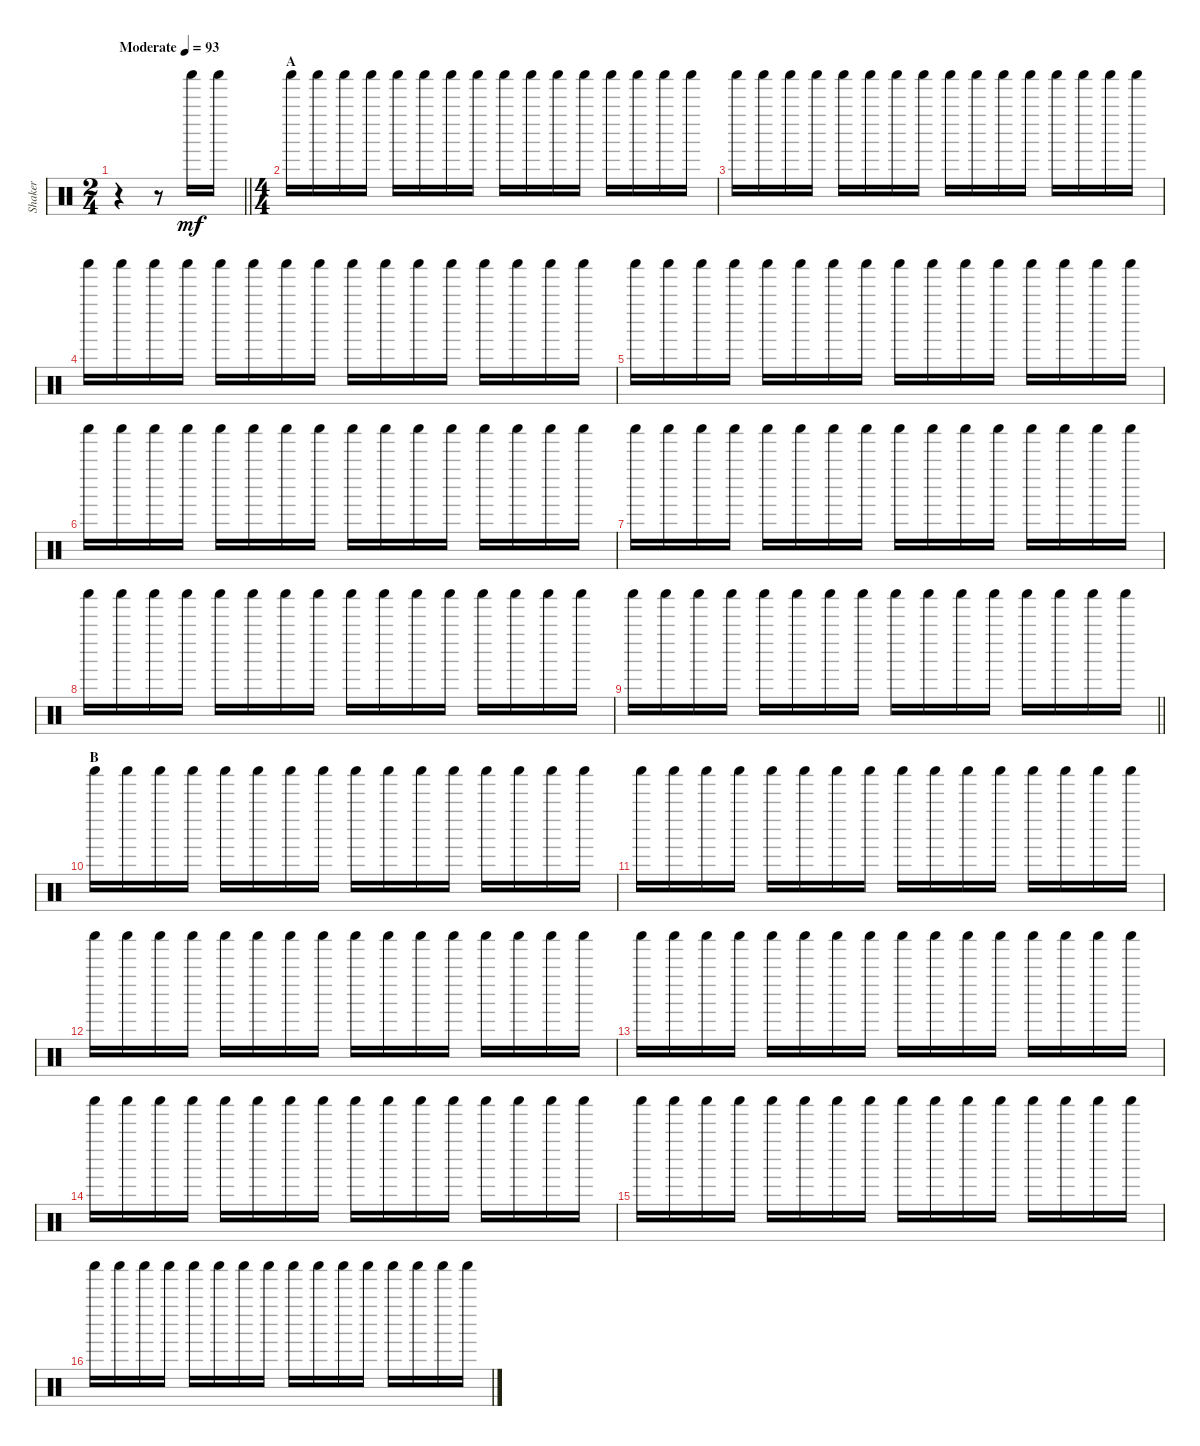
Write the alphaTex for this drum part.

\track ("Shaker" "Shaker") {instrument percussion}
\staff {score}
\articulation defaults
\ts (2 4)
\tempo (93 "Moderate")
\clef neutral
\barLineRight lightlight
\ks c
r.4{dy mf} r.8 "Shaker (hit)".16 "Shaker (hit)".16 |
\ts (4 4)
\section ("" "A")
"Shaker (hit)".16 "Shaker (hit)".16 "Shaker (hit)".16 "Shaker (hit)".16 "Shaker (hit)".16 "Shaker (hit)".16 "Shaker (hit)".16 "Shaker (hit)".16 "Shaker (hit)".16 "Shaker (hit)".16 "Shaker (hit)".16 "Shaker (hit)".16 "Shaker (hit)".16 "Shaker (hit)".16 "Shaker (hit)".16 "Shaker (hit)".16 |
"Shaker (hit)".16 "Shaker (hit)".16 "Shaker (hit)".16 "Shaker (hit)".16 "Shaker (hit)".16 "Shaker (hit)".16 "Shaker (hit)".16 "Shaker (hit)".16 "Shaker (hit)".16 "Shaker (hit)".16 "Shaker (hit)".16 "Shaker (hit)".16 "Shaker (hit)".16 "Shaker (hit)".16 "Shaker (hit)".16 "Shaker (hit)".16 |
"Shaker (hit)".16 "Shaker (hit)".16 "Shaker (hit)".16 "Shaker (hit)".16 "Shaker (hit)".16 "Shaker (hit)".16 "Shaker (hit)".16 "Shaker (hit)".16 "Shaker (hit)".16 "Shaker (hit)".16 "Shaker (hit)".16 "Shaker (hit)".16 "Shaker (hit)".16 "Shaker (hit)".16 "Shaker (hit)".16 "Shaker (hit)".16 |
"Shaker (hit)".16 "Shaker (hit)".16 "Shaker (hit)".16 "Shaker (hit)".16 "Shaker (hit)".16 "Shaker (hit)".16 "Shaker (hit)".16 "Shaker (hit)".16 "Shaker (hit)".16 "Shaker (hit)".16 "Shaker (hit)".16 "Shaker (hit)".16 "Shaker (hit)".16 "Shaker (hit)".16 "Shaker (hit)".16 "Shaker (hit)".16 |
"Shaker (hit)".16 "Shaker (hit)".16 "Shaker (hit)".16 "Shaker (hit)".16 "Shaker (hit)".16 "Shaker (hit)".16 "Shaker (hit)".16 "Shaker (hit)".16 "Shaker (hit)".16 "Shaker (hit)".16 "Shaker (hit)".16 "Shaker (hit)".16 "Shaker (hit)".16 "Shaker (hit)".16 "Shaker (hit)".16 "Shaker (hit)".16 |
"Shaker (hit)".16 "Shaker (hit)".16 "Shaker (hit)".16 "Shaker (hit)".16 "Shaker (hit)".16 "Shaker (hit)".16 "Shaker (hit)".16 "Shaker (hit)".16 "Shaker (hit)".16 "Shaker (hit)".16 "Shaker (hit)".16 "Shaker (hit)".16 "Shaker (hit)".16 "Shaker (hit)".16 "Shaker (hit)".16 "Shaker (hit)".16 |
"Shaker (hit)".16 "Shaker (hit)".16 "Shaker (hit)".16 "Shaker (hit)".16 "Shaker (hit)".16 "Shaker (hit)".16 "Shaker (hit)".16 "Shaker (hit)".16 "Shaker (hit)".16 "Shaker (hit)".16 "Shaker (hit)".16 "Shaker (hit)".16 "Shaker (hit)".16 "Shaker (hit)".16 "Shaker (hit)".16 "Shaker (hit)".16 |
\barLineRight lightlight "Shaker (hit)".16 "Shaker (hit)".16 "Shaker (hit)".16 "Shaker (hit)".16 "Shaker (hit)".16 "Shaker (hit)".16 "Shaker (hit)".16 "Shaker (hit)".16 "Shaker (hit)".16 "Shaker (hit)".16 "Shaker (hit)".16 "Shaker (hit)".16 "Shaker (hit)".16 "Shaker (hit)".16 "Shaker (hit)".16 "Shaker (hit)".16
|
\section ("" "B")
"Shaker (hit)".16 "Shaker (hit)".16 "Shaker (hit)".16 "Shaker (hit)".16 "Shaker (hit)".16 "Shaker (hit)".16 "Shaker (hit)".16 "Shaker (hit)".16 "Shaker (hit)".16 "Shaker (hit)".16 "Shaker (hit)".16 "Shaker (hit)".16 "Shaker (hit)".16 "Shaker (hit)".16 "Shaker (hit)".16 "Shaker (hit)".16 |
"Shaker (hit)".16 "Shaker (hit)".16 "Shaker (hit)".16 "Shaker (hit)".16 "Shaker (hit)".16 "Shaker (hit)".16 "Shaker (hit)".16 "Shaker (hit)".16 "Shaker (hit)".16 "Shaker (hit)".16 "Shaker (hit)".16 "Shaker (hit)".16 "Shaker (hit)".16 "Shaker (hit)".16 "Shaker (hit)".16 "Shaker (hit)".16 |
"Shaker (hit)".16 "Shaker (hit)".16 "Shaker (hit)".16 "Shaker (hit)".16 "Shaker (hit)".16 "Shaker (hit)".16 "Shaker (hit)".16 "Shaker (hit)".16 "Shaker (hit)".16 "Shaker (hit)".16 "Shaker (hit)".16 "Shaker (hit)".16 "Shaker (hit)".16 "Shaker (hit)".16 "Shaker (hit)".16 "Shaker (hit)".16 |
"Shaker (hit)".16 "Shaker (hit)".16 "Shaker (hit)".16 "Shaker (hit)".16 "Shaker (hit)".16 "Shaker (hit)".16 "Shaker (hit)".16 "Shaker (hit)".16 "Shaker (hit)".16 "Shaker (hit)".16 "Shaker (hit)".16 "Shaker (hit)".16 "Shaker (hit)".16 "Shaker (hit)".16 "Shaker (hit)".16 "Shaker (hit)".16 |
"Shaker (hit)".16 "Shaker (hit)".16 "Shaker (hit)".16 "Shaker (hit)".16 "Shaker (hit)".16 "Shaker (hit)".16 "Shaker (hit)".16 "Shaker (hit)".16 "Shaker (hit)".16 "Shaker (hit)".16 "Shaker (hit)".16 "Shaker (hit)".16 "Shaker (hit)".16 "Shaker (hit)".16 "Shaker (hit)".16 "Shaker (hit)".16 |
"Shaker (hit)".16 "Shaker (hit)".16 "Shaker (hit)".16 "Shaker (hit)".16 "Shaker (hit)".16 "Shaker (hit)".16 "Shaker (hit)".16 "Shaker (hit)".16 "Shaker (hit)".16 "Shaker (hit)".16 "Shaker (hit)".16 "Shaker (hit)".16 "Shaker (hit)".16 "Shaker (hit)".16 "Shaker (hit)".16 "Shaker (hit)".16 |
"Shaker (hit)".16 "Shaker (hit)".16 "Shaker (hit)".16 "Shaker (hit)".16 "Shaker (hit)".16 "Shaker (hit)".16 "Shaker (hit)".16 "Shaker (hit)".16 "Shaker (hit)".16 "Shaker (hit)".16 "Shaker (hit)".16 "Shaker (hit)".16 "Shaker (hit)".16 "Shaker (hit)".16 "Shaker (hit)".16 "Shaker (hit)".16
